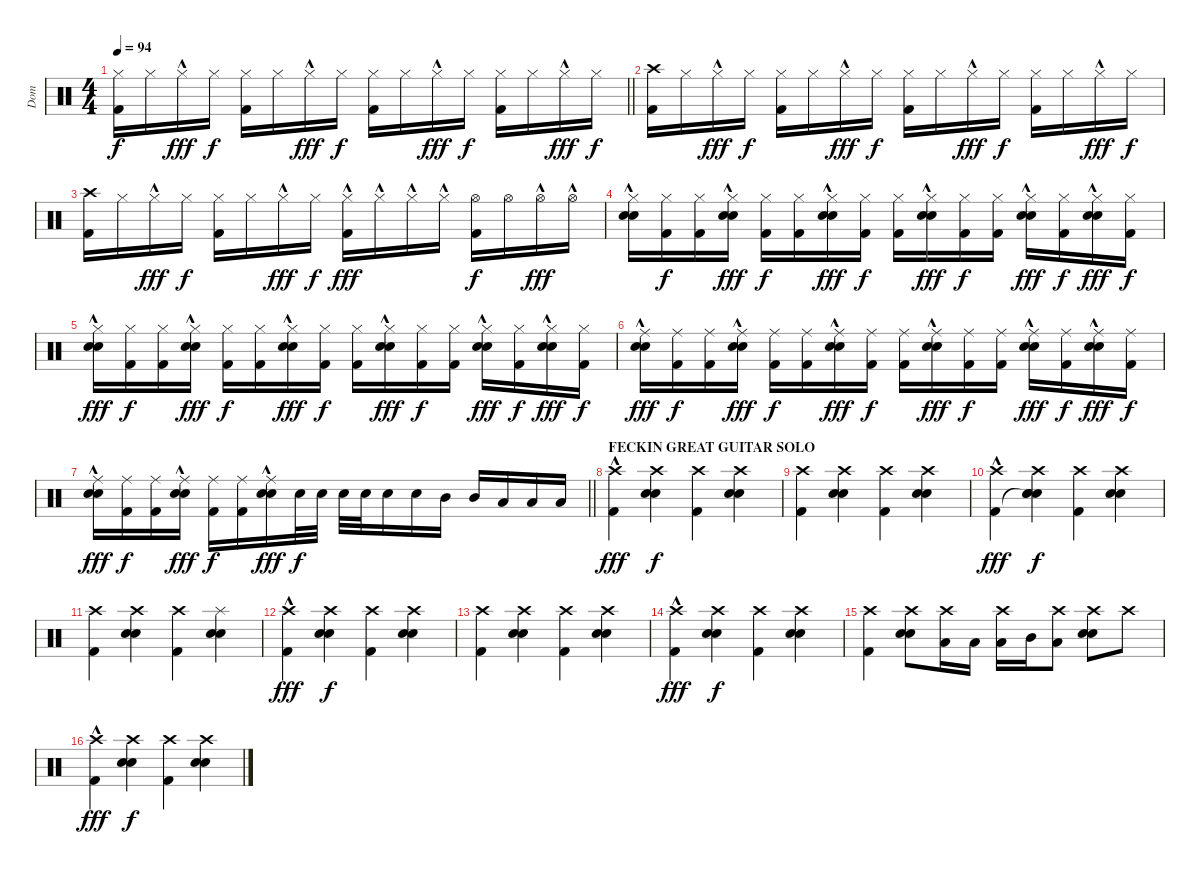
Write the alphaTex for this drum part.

\track ("Dom" "Dom") {instrument percussion}
\staff {score}
\articulation defaults
\ts (4 4)
\tempo 94
\clef neutral
\barLineRight lightlight
\ks c
("Hi-Hat (closed)" "Kick (hit) 2").16{dy f} "Hi-Hat (closed)".16 "Hi-Hat (closed)"{hac}.16{dy fff} "Hi-Hat (closed)".16{dy f} ("Hi-Hat (closed)" "Kick (hit) 2").16 "Hi-Hat (closed)".16 "Hi-Hat (closed)"{hac}.16{dy fff} "Hi-Hat (closed)".16{dy f} ("Hi-Hat (closed)" "Kick (hit) 2").16 "Hi-Hat (closed)".16 "Hi-Hat (closed)"{hac}.16{dy fff} "Hi-Hat (closed)".16{dy f} ("Hi-Hat (closed)" "Kick (hit) 2").16 "Hi-Hat (closed)".16 "Hi-Hat (closed)"{hac}.16{dy fff} "Hi-Hat (closed)".16{dy f} |
("Crash high (hit)" "Kick (hit) 2").16 "Hi-Hat (closed)".16 "Hi-Hat (closed)"{hac}.16{dy fff} "Hi-Hat (closed)".16{dy f} ("Hi-Hat (closed)" "Kick (hit) 2").16 "Hi-Hat (closed)".16 "Hi-Hat (closed)"{hac}.16{dy fff} "Hi-Hat (closed)".16{dy f} ("Hi-Hat (closed)" "Kick (hit) 2").16 "Hi-Hat (closed)".16 "Hi-Hat (closed)"{hac}.16{dy fff} "Hi-Hat (closed)".16{dy f} ("Hi-Hat (closed)" "Kick (hit) 2").16 "Hi-Hat (closed)".16 "Hi-Hat (closed)"{hac}.16{dy fff} "Hi-Hat (closed)".16{dy f} |
("Crash high (hit)" "Kick (hit) 2").16 "Hi-Hat (closed)".16 "Hi-Hat (closed)"{hac}.16{dy fff} "Hi-Hat (closed)".16{dy f} ("Hi-Hat (closed)" "Kick (hit) 2").16 "Hi-Hat (closed)".16 "Hi-Hat (closed)"{hac}.16{dy fff} "Hi-Hat (closed)".16{dy f} ("Hi-Hat (closed)"{hac} "Kick (hit) 2").16{dy fff} "Hi-Hat (closed)"{hac}.16 "Hi-Hat (closed)"{hac}.16 "Hi-Hat (closed)"{hac}.16 ("Hi-Hat (open)" "Kick (hit) 2").16{dy f} "Hi-Hat (open)".16 "Hi-Hat (open)"{hac}.16{dy fff} "Hi-Hat (open)"{hac}.16 |
("Hi-Hat (closed)"{hac} "Snare (hit) 2" "Electric Snare (hit)").16 ("Hi-Hat (closed)" "Kick (hit) 2").16{dy f} ("Hi-Hat (closed)" "Kick (hit) 2").16 ("Hi-Hat (closed)"{hac} "Snare (hit) 2" "Electric Snare (hit)").16{dy fff} ("Hi-Hat (closed)" "Kick (hit) 2").16{dy f} ("Hi-Hat (closed)" "Kick (hit) 2").16 ("Hi-Hat (closed)"{hac} "Snare (hit) 2" "Electric Snare (hit)").16{dy fff} ("Hi-Hat (closed)" "Kick (hit) 2").16{dy f} ("Hi-Hat (closed)" "Kick (hit) 2").16 ("Hi-Hat (closed)"{hac} "Snare (hit) 2" "Electric Snare (hit)").16{dy fff} ("Hi-Hat (closed)" "Kick (hit) 2").16{dy f} ("Hi-Hat (closed)" "Kick (hit) 2").16 ("Hi-Hat (closed)"{hac} "Snare (hit) 2" "Electric Snare (hit)").16{dy fff} ("Hi-Hat (closed)" "Kick (hit) 2").16{dy f} ("Hi-Hat (closed)"{hac} "Snare (hit) 2" "Electric Snare (hit)").16{dy fff} ("Hi-Hat (closed)" "Kick (hit) 2").16{dy f} |
("Hi-Hat (closed)"{hac} "Snare (hit) 2" "Electric Snare (hit)").16{dy fff} ("Hi-Hat (closed)" "Kick (hit) 2").16{dy f} ("Hi-Hat (closed)" "Kick (hit) 2").16 ("Hi-Hat (closed)"{hac} "Snare (hit) 2" "Electric Snare (hit)").16{dy fff} ("Hi-Hat (closed)" "Kick (hit) 2").16{dy f} ("Hi-Hat (closed)" "Kick (hit) 2").16 ("Hi-Hat (closed)"{hac} "Snare (hit) 2" "Electric Snare (hit)").16{dy fff} ("Hi-Hat (closed)" "Kick (hit) 2").16{dy f} ("Hi-Hat (closed)" "Kick (hit) 2").16 ("Hi-Hat (closed)"{hac} "Snare (hit) 2" "Electric Snare (hit)").16{dy fff} ("Hi-Hat (closed)" "Kick (hit) 2").16{dy f} ("Hi-Hat (closed)" "Kick (hit) 2").16 ("Hi-Hat (closed)"{hac} "Snare (hit) 2" "Electric Snare (hit)").16{dy fff} ("Hi-Hat (closed)" "Kick (hit) 2").16{dy f} ("Hi-Hat (closed)"{hac} "Snare (hit) 2" "Electric Snare (hit)").16{dy fff} ("Hi-Hat (closed)" "Kick (hit) 2").16{dy f} |
("Ride (middle)"{hac} "Snare (hit) 2" "Electric Snare (hit)").16{dy fff} ("Ride (middle)" "Kick (hit) 2").16{dy f} ("Ride (middle)" "Kick (hit) 2").16 ("Ride (middle)"{hac} "Snare (hit) 2" "Electric Snare (hit)").16{dy fff} ("Ride (middle)" "Kick (hit) 2").16{dy f} ("Ride (middle)" "Kick (hit) 2").16 ("Ride (middle)"{hac} "Snare (hit) 2" "Electric Snare (hit)").16{dy fff} ("Ride (middle)" "Kick (hit) 2").16{dy f} ("Ride (middle)" "Kick (hit) 2").16 ("Ride (middle)"{hac} "Snare (hit) 2" "Electric Snare (hit)").16{dy fff} ("Ride (middle)" "Kick (hit) 2").16{dy f} ("Ride (middle)" "Kick (hit) 2").16 ("Ride (middle)"{hac} "Snare (hit) 2" "Electric Snare (hit)").16{dy fff} ("Ride (middle)" "Kick (hit) 2").16{dy f} ("Ride (middle)"{hac} "Snare (hit) 2" "Electric Snare (hit)").16{dy fff} ("Ride (middle)" "Kick (hit) 2").16{dy f} |
\barLineRight lightlight
("Ride (middle)"{hac} "Snare (hit) 2" "Electric Snare (hit)").16{dy fff} ("Ride (middle)" "Kick (hit) 2").16{dy f} ("Ride (middle)" "Kick (hit) 2").16 ("Ride (middle)"{hac} "Snare (hit) 2" "Electric Snare (hit)").16{dy fff} ("Ride (middle)" "Kick (hit) 2").16{dy f} ("Ride (middle)" "Kick (hit) 2").16 ("Ride (middle)"{hac} "Snare (hit) 2" "Electric Snare (hit)").16{dy fff} "Snare (hit) 2".32{dy f} "Snare (hit) 2".32 "Snare (hit) 2".32 "Snare (hit) 2".32 "Snare (hit) 2".16 "Snare (hit) 2".16 "Mid Tom (hit)".16 "Mid Tom (hit)".16 "Low Tom (hit)".16 "Low Tom (hit)".16 "Low Floor Tom (hit)".16 |
\section ("" "FECKIN GREAT GUITAR SOLO")
("Crash high (hit)"{hac} "Kick (hit) 2").4{dy fff} ("Crash high (hit)" "Snare (hit) 2" "Electric Snare (hit)").4{dy f} ("Crash high (hit)" "Kick (hit) 2").4 ("Crash high (hit)" "Snare (hit) 2" "Electric Snare (hit)").4 |
("Crash high (hit)" "Kick (hit) 2").4 ("Crash high (hit)" "Snare (hit) 2" "Electric Snare (hit)").4 ("Crash high (hit)" "Kick (hit) 2").4 ("Crash high (hit)" "Snare (hit) 2" "Electric Snare (hit)").4 |
("Crash high (hit)"{hac} "Kick (hit) 2").4{dy fff} ("Crash high (hit)" "Snare (hit)"{t} "Snare (hit) 2" "Electric Snare (hit)").4{dy f} ("Crash high (hit)" "Kick (hit) 2").4 ("Crash high (hit)" "Snare (hit) 2" "Electric Snare (hit)").4 |
("Crash high (hit)" "Kick (hit) 2").4 ("Crash high (hit)" "Snare (hit) 2" "Electric Snare (hit)").4 ("Crash high (hit)" "Kick (hit) 2").4 ("Splash (hit)" "Snare (hit) 2" "Electric Snare (hit)").4 |
("Crash high (hit)"{hac} "Kick (hit) 2").4{dy fff} ("Crash high (hit)" "Snare (hit) 2" "Electric Snare (hit)").4{dy f} ("Crash high (hit)" "Kick (hit) 2").4 ("Crash high (hit)" "Snare (hit) 2" "Electric Snare (hit)").4 |
("Crash high (hit)" "Kick (hit) 2").4 ("Crash high (hit)" "Snare (hit) 2" "Electric Snare (hit)").4 ("Crash high (hit)" "Kick (hit) 2").4 ("Crash high (hit)" "Snare (hit) 2" "Electric Snare (hit)").4 |
("Crash high (hit)"{hac} "Kick (hit) 2").4{dy fff} ("Crash high (hit)" "Snare (hit) 2" "Electric Snare (hit)").4{dy f} ("Crash high (hit)" "Kick (hit) 2").4 ("Crash high (hit)" "Snare (hit) 2" "Electric Snare (hit)").4 |
("Crash high (hit)" "Kick (hit) 2").4 ("Crash high (hit)" "Snare (hit) 2" "Electric Snare (hit)").8 ("Crash high (hit)" "Low Tom (hit)").16 "Low Tom (hit)".16 ("Crash high (hit)" "Low Tom (hit)").16 "Mid Tom (hit)".16 ("Crash high (hit)" "Low Tom (hit)").8 ("Crash high (hit)" "Snare (hit) 2" "Electric Snare (hit)").8 "Crash high (hit)".8 |
("Crash high (hit)"{hac} "Kick (hit) 2").4{dy fff} ("Crash high (hit)" "Snare (hit) 2" "Electric Snare (hit)").4{dy f} ("Crash high (hit)" "Kick (hit) 2").4 ("Crash high (hit)" "Snare (hit) 2" "Electric Snare (hit)").4
